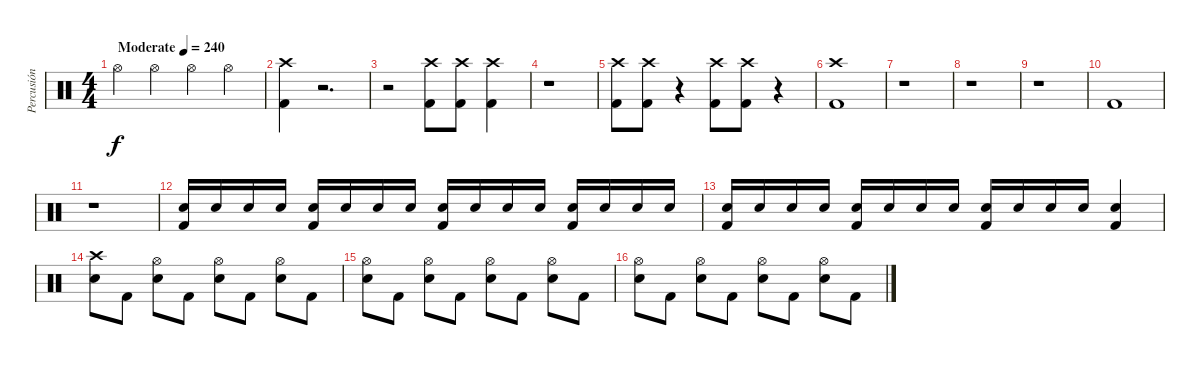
\track ("Percusión" "Percusión") {instrument percussion}
\staff {score}
\articulation defaults
\ts (4 4)
\tempo (240 "Moderate")
\clef neutral
\ks c "Hi-Hat (open)".4{dy f} "Hi-Hat (open)".4 "Hi-Hat (open)".4 "Hi-Hat (open)".4
|
("Crash high (hit)" "Kick (hit) 2").4 r.2{d} |
r.2 ("Kick (hit) 2" "Crash high (hit)").8 ("Kick (hit) 2" "Crash high (hit)").8 ("Crash high (hit)" "Kick (hit) 2").4 |
r.1 |
("Kick (hit) 2" "Crash high (hit)").8 ("Kick (hit) 2" "Crash high (hit)").8 r.4 ("Kick (hit) 2" "Crash high (hit)").8 ("Kick (hit) 2" "Crash high (hit)").8 r.4 |
("Crash high (hit)" "Kick (hit) 2").1 |
r.1 |
r.1 |
r.1 |
"Kick (hit) 2".1 |
r.1 |
("Snare (hit) 2" "Kick (hit) 2").16 "Snare (hit) 2".16 "Snare (hit) 2".16 "Snare (hit) 2".16 ("Snare (hit) 2" "Kick (hit) 2").16 "Snare (hit) 2".16 "Snare (hit) 2".16 "Snare (hit) 2".16 ("Snare (hit) 2" "Kick (hit) 2").16 "Snare (hit) 2".16 "Snare (hit) 2".16 "Snare (hit) 2".16 ("Snare (hit) 2" "Kick (hit) 2").16 "Snare (hit) 2".16 "Snare (hit) 2".16 "Snare (hit) 2".16 |
("Snare (hit) 2" "Kick (hit) 2").16 "Snare (hit) 2".16 "Snare (hit) 2".16 "Snare (hit) 2".16 ("Snare (hit) 2" "Kick (hit) 2").16 "Snare (hit) 2".16 "Snare (hit) 2".16 "Snare (hit) 2".16 ("Snare (hit) 2" "Kick (hit) 2").16 "Snare (hit) 2".16 "Snare (hit) 2".16 "Snare (hit) 2".16 ("Snare (hit) 2" "Kick (hit) 2").4 |
("Crash high (hit)" "Snare (hit) 2").8 "Kick (hit) 2".8 ("Snare (hit) 2" "Hi-Hat (open)").8 "Kick (hit) 2".8 ("Snare (hit) 2" "Hi-Hat (open)").8 "Kick (hit) 2".8 ("Snare (hit) 2" "Hi-Hat (open)").8 "Kick (hit) 2".8 |
("Snare (hit) 2" "Hi-Hat (open)").8 "Kick (hit) 2".8 ("Snare (hit) 2" "Hi-Hat (open)").8 "Kick (hit) 2".8 ("Snare (hit) 2" "Hi-Hat (open)").8 "Kick (hit) 2".8 ("Snare (hit) 2" "Hi-Hat (open)").8 "Kick (hit) 2".8 |
("Snare (hit) 2" "Hi-Hat (open)").8 "Kick (hit) 2".8 ("Snare (hit) 2" "Hi-Hat (open)").8 "Kick (hit) 2".8 ("Snare (hit) 2" "Hi-Hat (open)").8 "Kick (hit) 2".8 ("Snare (hit) 2" "Hi-Hat (open)").8 "Kick (hit) 2".8
